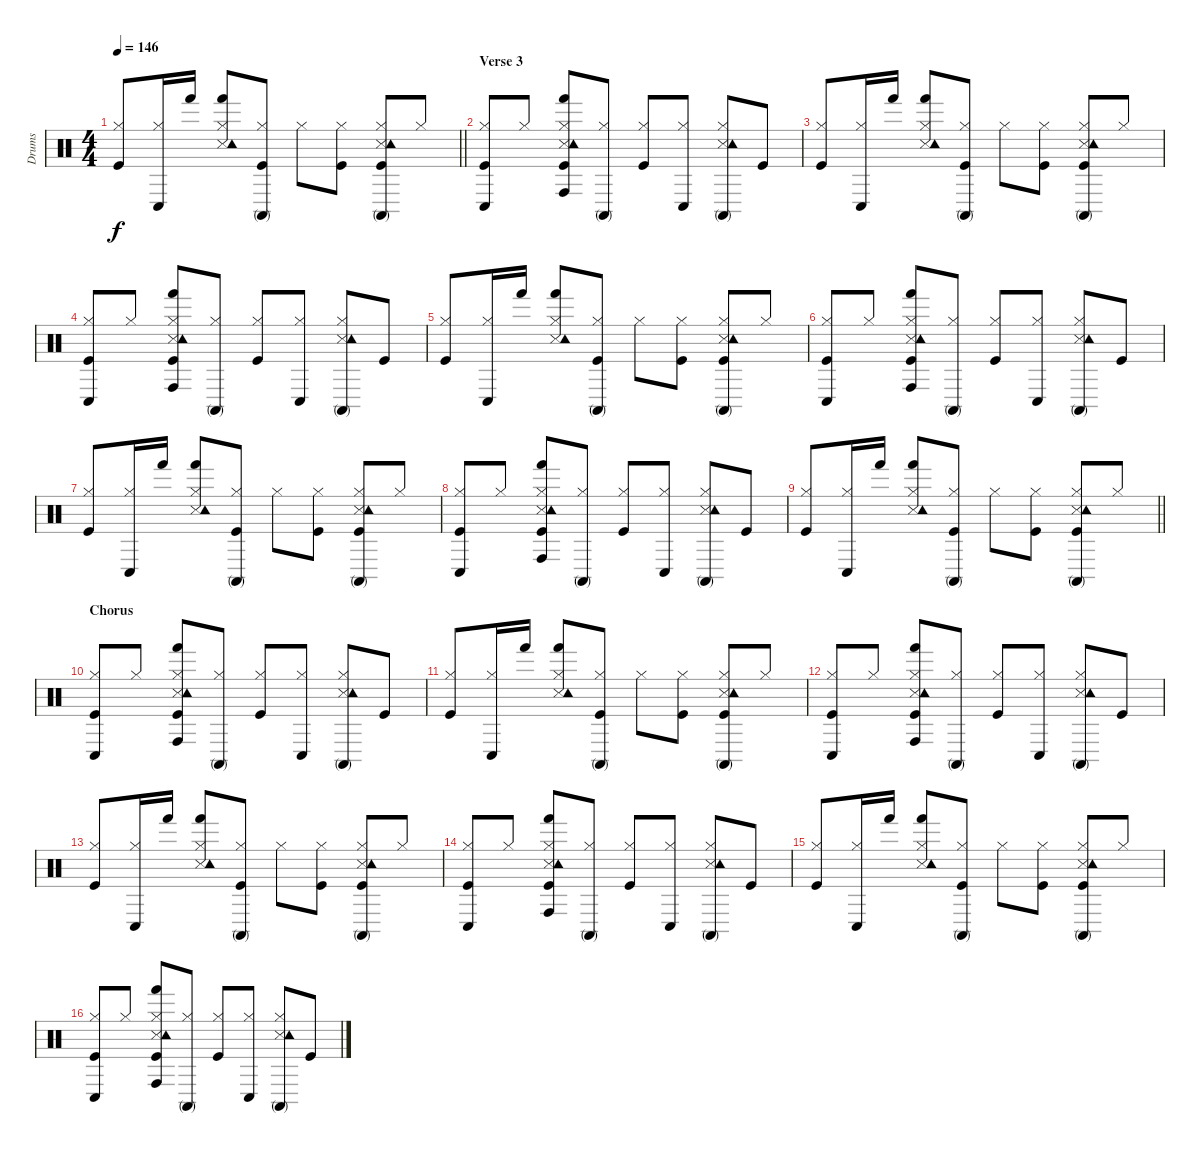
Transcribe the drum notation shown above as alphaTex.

\track ("Drums" "Drums") {instrument percussion}
\staff {score}
\articulation defaults
\ts (4 4)
\tempo 146
\clef neutral
\barLineRight lightlight
\ks c
("Kick (hit)" "Hi-Hat (closed)").8{dy f} ("Hi-Hat (closed)" "Conga low (hit)").16 "Hand (hit)".16 ("Snare (side stick) 3" "Hi-Hat (closed)" "Tambourine (hit)" "Hand (hit)").8 ("Kick (hit)" "Hi-Hat (closed)" "Conga high (mute)").8 "Hi-Hat (closed)".8 ("Kick (hit)" "Hi-Hat (closed)").8 ("Kick (hit)" "Snare (side stick) 3" "Hi-Hat (closed)" "Tambourine (hit)" "Conga high (mute)").8 "Hi-Hat (closed)".8 |
\section ("" "Verse 3")
("Kick (hit)" "Hi-Hat (closed)" "Conga low (hit)").8 "Hi-Hat (closed)".8 ("Kick (hit)" "Snare (side stick) 3" "Hi-Hat (closed)" "Tambourine (hit)" "Hand (hit)" "Conga high (hit)").8 ("Hi-Hat (closed)" "Conga high (mute)").8 ("Kick (hit)" "Hi-Hat (closed)").8 ("Hi-Hat (closed)" "Conga low (hit)").8 ("Snare (side stick) 3" "Hi-Hat (closed)" "Tambourine (hit)" "Conga high (mute)").8 "Kick (hit)".8 |
("Kick (hit)" "Hi-Hat (closed)").8 ("Hi-Hat (closed)" "Conga low (hit)").16 "Hand (hit)".16 ("Snare (side stick) 3" "Hi-Hat (closed)" "Tambourine (hit)" "Hand (hit)").8 ("Kick (hit)" "Hi-Hat (closed)" "Conga high (mute)").8 "Hi-Hat (closed)".8 ("Kick (hit)" "Hi-Hat (closed)").8 ("Kick (hit)" "Snare (side stick) 3" "Hi-Hat (closed)" "Tambourine (hit)" "Conga high (mute)").8 "Hi-Hat (closed)".8 |
("Kick (hit)" "Hi-Hat (closed)" "Conga low (hit)").8 "Hi-Hat (closed)".8 ("Kick (hit)" "Snare (side stick) 3" "Hi-Hat (closed)" "Tambourine (hit)" "Hand (hit)" "Conga high (hit)").8 ("Hi-Hat (closed)" "Conga high (mute)").8 ("Kick (hit)" "Hi-Hat (closed)").8 ("Hi-Hat (closed)" "Conga low (hit)").8 ("Snare (side stick) 3" "Hi-Hat (closed)" "Tambourine (hit)" "Conga high (mute)").8 "Kick (hit)".8 |
("Kick (hit)" "Hi-Hat (closed)").8 ("Hi-Hat (closed)" "Conga low (hit)").16 "Hand (hit)".16 ("Snare (side stick) 3" "Hi-Hat (closed)" "Tambourine (hit)" "Hand (hit)").8 ("Kick (hit)" "Hi-Hat (closed)" "Conga high (mute)").8 "Hi-Hat (closed)".8 ("Kick (hit)" "Hi-Hat (closed)").8 ("Kick (hit)" "Snare (side stick) 3" "Hi-Hat (closed)" "Tambourine (hit)" "Conga high (mute)").8 "Hi-Hat (closed)".8 |
("Kick (hit)" "Hi-Hat (closed)" "Conga low (hit)").8 "Hi-Hat (closed)".8 ("Kick (hit)" "Snare (side stick) 3" "Hi-Hat (closed)" "Tambourine (hit)" "Hand (hit)" "Conga high (hit)").8 ("Hi-Hat (closed)" "Conga high (mute)").8 ("Kick (hit)" "Hi-Hat (closed)").8 ("Hi-Hat (closed)" "Conga low (hit)").8 ("Snare (side stick) 3" "Hi-Hat (closed)" "Tambourine (hit)" "Conga high (mute)").8 "Kick (hit)".8 |
("Kick (hit)" "Hi-Hat (closed)").8 ("Hi-Hat (closed)" "Conga low (hit)").16 "Hand (hit)".16 ("Snare (side stick) 3" "Hi-Hat (closed)" "Tambourine (hit)" "Hand (hit)").8 ("Kick (hit)" "Hi-Hat (closed)" "Conga high (mute)").8 "Hi-Hat (closed)".8 ("Kick (hit)" "Hi-Hat (closed)").8 ("Kick (hit)" "Snare (side stick) 3" "Hi-Hat (closed)" "Tambourine (hit)" "Conga high (mute)").8 "Hi-Hat (closed)".8 |
("Kick (hit)" "Hi-Hat (closed)" "Conga low (hit)").8 "Hi-Hat (closed)".8 ("Kick (hit)" "Snare (side stick) 3" "Hi-Hat (closed)" "Tambourine (hit)" "Hand (hit)" "Conga high (hit)").8 ("Hi-Hat (closed)" "Conga high (mute)").8 ("Kick (hit)" "Hi-Hat (closed)").8 ("Hi-Hat (closed)" "Conga low (hit)").8 ("Snare (side stick) 3" "Hi-Hat (closed)" "Tambourine (hit)" "Conga high (mute)").8 "Kick (hit)".8 |
\barLineRight lightlight
("Kick (hit)" "Hi-Hat (closed)").8 ("Hi-Hat (closed)" "Conga low (hit)").16 "Hand (hit)".16 ("Snare (side stick) 3" "Hi-Hat (closed)" "Tambourine (hit)" "Hand (hit)").8 ("Kick (hit)" "Hi-Hat (closed)" "Conga high (mute)").8 "Hi-Hat (closed)".8 ("Kick (hit)" "Hi-Hat (closed)").8 ("Kick (hit)" "Snare (side stick) 3" "Hi-Hat (closed)" "Tambourine (hit)" "Conga high (mute)").8 "Hi-Hat (closed)".8 |
\section ("" "Chorus")
("Kick (hit)" "Hi-Hat (closed)" "Conga low (hit)").8 "Hi-Hat (closed)".8 ("Kick (hit)" "Snare (side stick) 3" "Hi-Hat (closed)" "Tambourine (hit)" "Hand (hit)" "Conga high (hit)").8 ("Hi-Hat (closed)" "Conga high (mute)").8 ("Kick (hit)" "Hi-Hat (closed)").8 ("Hi-Hat (closed)" "Conga low (hit)").8 ("Snare (side stick) 3" "Hi-Hat (closed)" "Tambourine (hit)" "Conga high (mute)").8 "Kick (hit)".8 |
("Kick (hit)" "Hi-Hat (closed)").8 ("Hi-Hat (closed)" "Conga low (hit)").16 "Hand (hit)".16 ("Snare (side stick) 3" "Hi-Hat (closed)" "Tambourine (hit)" "Hand (hit)").8 ("Kick (hit)" "Hi-Hat (closed)" "Conga high (mute)").8 "Hi-Hat (closed)".8 ("Kick (hit)" "Hi-Hat (closed)").8 ("Kick (hit)" "Snare (side stick) 3" "Hi-Hat (closed)" "Tambourine (hit)" "Conga high (mute)").8 "Hi-Hat (closed)".8 |
("Kick (hit)" "Hi-Hat (closed)" "Conga low (hit)").8 "Hi-Hat (closed)".8 ("Kick (hit)" "Snare (side stick) 3" "Hi-Hat (closed)" "Tambourine (hit)" "Hand (hit)" "Conga high (hit)").8 ("Hi-Hat (closed)" "Conga high (mute)").8 ("Kick (hit)" "Hi-Hat (closed)").8 ("Hi-Hat (closed)" "Conga low (hit)").8 ("Snare (side stick) 3" "Hi-Hat (closed)" "Tambourine (hit)" "Conga high (mute)").8 "Kick (hit)".8 |
("Kick (hit)" "Hi-Hat (closed)").8 ("Hi-Hat (closed)" "Conga low (hit)").16 "Hand (hit)".16 ("Snare (side stick) 3" "Hi-Hat (closed)" "Tambourine (hit)" "Hand (hit)").8 ("Kick (hit)" "Hi-Hat (closed)" "Conga high (mute)").8 "Hi-Hat (closed)".8 ("Kick (hit)" "Hi-Hat (closed)").8 ("Kick (hit)" "Snare (side stick) 3" "Hi-Hat (closed)" "Tambourine (hit)" "Conga high (mute)").8 "Hi-Hat (closed)".8 |
("Kick (hit)" "Hi-Hat (closed)" "Conga low (hit)").8 "Hi-Hat (closed)".8 ("Kick (hit)" "Snare (side stick) 3" "Hi-Hat (closed)" "Tambourine (hit)" "Hand (hit)" "Conga high (hit)").8 ("Hi-Hat (closed)" "Conga high (mute)").8 ("Kick (hit)" "Hi-Hat (closed)").8 ("Hi-Hat (closed)" "Conga low (hit)").8 ("Snare (side stick) 3" "Hi-Hat (closed)" "Tambourine (hit)" "Conga high (mute)").8 "Kick (hit)".8 |
("Kick (hit)" "Hi-Hat (closed)").8 ("Hi-Hat (closed)" "Conga low (hit)").16 "Hand (hit)".16 ("Snare (side stick) 3" "Hi-Hat (closed)" "Tambourine (hit)" "Hand (hit)").8 ("Kick (hit)" "Hi-Hat (closed)" "Conga high (mute)").8 "Hi-Hat (closed)".8 ("Kick (hit)" "Hi-Hat (closed)").8 ("Kick (hit)" "Snare (side stick) 3" "Hi-Hat (closed)" "Tambourine (hit)" "Conga high (mute)").8 "Hi-Hat (closed)".8 |
("Kick (hit)" "Hi-Hat (closed)" "Conga low (hit)").8 "Hi-Hat (closed)".8 ("Kick (hit)" "Snare (side stick) 3" "Hi-Hat (closed)" "Tambourine (hit)" "Hand (hit)" "Conga high (hit)").8 ("Hi-Hat (closed)" "Conga high (mute)").8 ("Kick (hit)" "Hi-Hat (closed)").8 ("Hi-Hat (closed)" "Conga low (hit)").8 ("Snare (side stick) 3" "Hi-Hat (closed)" "Tambourine (hit)" "Conga high (mute)").8 "Kick (hit)".8
